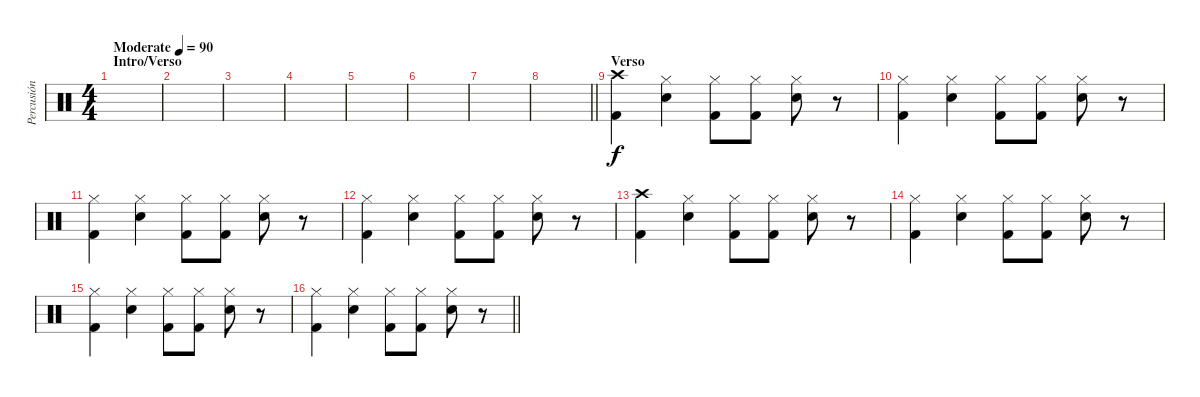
\track ("Percusión" "Percusión") {instrument percussion}
\staff {score}
\articulation defaults
\ts (4 4)
\section ("" "Intro/Verso")
\tempo (90 "Moderate")
\clef neutral
\ks c
|
|
|
|
|
|
|
\barLineRight lightlight
|
\section ("" "Verso")
("Crash high (hit)" "Kick (hit) 2").4 ("Hi-Hat (closed)" "Snare (hit) 2").4 ("Hi-Hat (closed)" "Kick (hit) 2").8 ("Hi-Hat (closed)" "Kick (hit) 2").8 ("Hi-Hat (closed)" "Snare (hit) 2").8 r.8 |
("Hi-Hat (closed)" "Kick (hit) 2").4 ("Hi-Hat (closed)" "Snare (hit) 2").4 ("Hi-Hat (closed)" "Kick (hit) 2").8 ("Hi-Hat (closed)" "Kick (hit) 2").8 ("Hi-Hat (closed)" "Snare (hit) 2").8 r.8 |
("Hi-Hat (closed)" "Kick (hit) 2").4 ("Hi-Hat (closed)" "Snare (hit) 2").4 ("Hi-Hat (closed)" "Kick (hit) 2").8 ("Hi-Hat (closed)" "Kick (hit) 2").8 ("Hi-Hat (closed)" "Snare (hit) 2").8 r.8 |
("Hi-Hat (closed)" "Kick (hit) 2").4 ("Hi-Hat (closed)" "Snare (hit) 2").4 ("Hi-Hat (closed)" "Kick (hit) 2").8 ("Hi-Hat (closed)" "Kick (hit) 2").8 ("Hi-Hat (closed)" "Snare (hit) 2").8 r.8 |
("Crash high (hit)" "Kick (hit) 2").4 ("Hi-Hat (closed)" "Snare (hit) 2").4 ("Hi-Hat (closed)" "Kick (hit) 2").8 ("Hi-Hat (closed)" "Kick (hit) 2").8 ("Hi-Hat (closed)" "Snare (hit) 2").8 r.8 |
("Hi-Hat (closed)" "Kick (hit) 2").4 ("Hi-Hat (closed)" "Snare (hit) 2").4 ("Hi-Hat (closed)" "Kick (hit) 2").8 ("Hi-Hat (closed)" "Kick (hit) 2").8 ("Hi-Hat (closed)" "Snare (hit) 2").8 r.8 |
("Hi-Hat (closed)" "Kick (hit) 2").4 ("Hi-Hat (closed)" "Snare (hit) 2").4 ("Hi-Hat (closed)" "Kick (hit) 2").8 ("Hi-Hat (closed)" "Kick (hit) 2").8 ("Hi-Hat (closed)" "Snare (hit) 2").8 r.8 |
\barLineRight lightlight
("Hi-Hat (closed)" "Kick (hit) 2").4 ("Hi-Hat (closed)" "Snare (hit) 2").4 ("Hi-Hat (closed)" "Kick (hit) 2").8 ("Hi-Hat (closed)" "Kick (hit) 2").8 ("Hi-Hat (closed)" "Snare (hit) 2").8 r.8
